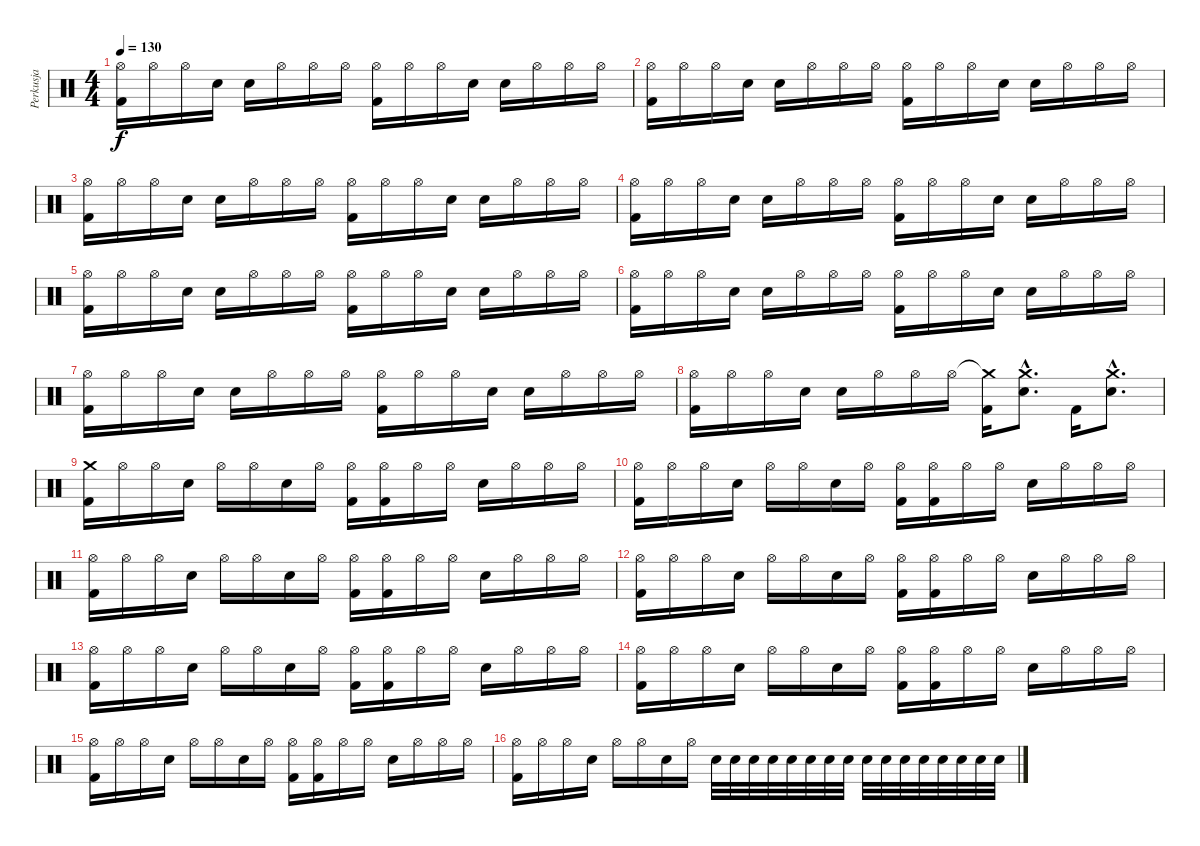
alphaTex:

\track ("Perkusja" "Perkusja") {instrument percussion}
\staff {score}
\articulation defaults
\ts (4 4)
\tempo 130
\clef neutral
\ks c
("Hi-Hat (open)" "Kick (hit) 2").16{dy f} "Hi-Hat (open)".16 "Hi-Hat (open)".16 "Electric Snare (hit)".16 "Electric Snare (hit)".16 "Hi-Hat (open)".16 "Hi-Hat (open)".16 "Hi-Hat (open)".16 ("Hi-Hat (open)" "Kick (hit) 2").16 "Hi-Hat (open)".16 "Hi-Hat (open)".16 "Electric Snare (hit)".16 "Electric Snare (hit)".16 "Hi-Hat (open)".16 "Hi-Hat (open)".16 "Hi-Hat (open)".16 |
("Hi-Hat (open)" "Kick (hit) 2").16 "Hi-Hat (open)".16 "Hi-Hat (open)".16 "Electric Snare (hit)".16 "Electric Snare (hit)".16 "Hi-Hat (open)".16 "Hi-Hat (open)".16 "Hi-Hat (open)".16 ("Hi-Hat (open)" "Kick (hit) 2").16 "Hi-Hat (open)".16 "Hi-Hat (open)".16 "Electric Snare (hit)".16 "Electric Snare (hit)".16 "Hi-Hat (open)".16 "Hi-Hat (open)".16 "Hi-Hat (open)".16 |
("Hi-Hat (open)" "Kick (hit) 2").16 "Hi-Hat (open)".16 "Hi-Hat (open)".16 "Electric Snare (hit)".16 "Electric Snare (hit)".16 "Hi-Hat (open)".16 "Hi-Hat (open)".16 "Hi-Hat (open)".16 ("Hi-Hat (open)" "Kick (hit) 2").16 "Hi-Hat (open)".16 "Hi-Hat (open)".16 "Electric Snare (hit)".16 "Electric Snare (hit)".16 "Hi-Hat (open)".16 "Hi-Hat (open)".16 "Hi-Hat (open)".16 |
("Hi-Hat (open)" "Kick (hit) 2").16 "Hi-Hat (open)".16 "Hi-Hat (open)".16 "Electric Snare (hit)".16 "Electric Snare (hit)".16 "Hi-Hat (open)".16 "Hi-Hat (open)".16 "Hi-Hat (open)".16 ("Hi-Hat (open)" "Kick (hit) 2").16 "Hi-Hat (open)".16 "Hi-Hat (open)".16 "Electric Snare (hit)".16 "Electric Snare (hit)".16 "Hi-Hat (open)".16 "Hi-Hat (open)".16 "Hi-Hat (open)".16 |
("Hi-Hat (open)" "Kick (hit) 2").16 "Hi-Hat (open)".16 "Hi-Hat (open)".16 "Electric Snare (hit)".16 "Electric Snare (hit)".16 "Hi-Hat (open)".16 "Hi-Hat (open)".16 "Hi-Hat (open)".16 ("Hi-Hat (open)" "Kick (hit) 2").16 "Hi-Hat (open)".16 "Hi-Hat (open)".16 "Electric Snare (hit)".16 "Electric Snare (hit)".16 "Hi-Hat (open)".16 "Hi-Hat (open)".16 "Hi-Hat (open)".16 |
("Hi-Hat (open)" "Kick (hit) 2").16 "Hi-Hat (open)".16 "Hi-Hat (open)".16 "Electric Snare (hit)".16 "Electric Snare (hit)".16 "Hi-Hat (open)".16 "Hi-Hat (open)".16 "Hi-Hat (open)".16 ("Hi-Hat (open)" "Kick (hit) 2").16 "Hi-Hat (open)".16 "Hi-Hat (open)".16 "Electric Snare (hit)".16 "Electric Snare (hit)".16 "Hi-Hat (open)".16 "Hi-Hat (open)".16 "Hi-Hat (open)".16 |
("Hi-Hat (open)" "Kick (hit) 2").16 "Hi-Hat (open)".16 "Hi-Hat (open)".16 "Electric Snare (hit)".16 "Electric Snare (hit)".16 "Hi-Hat (open)".16 "Hi-Hat (open)".16 "Hi-Hat (open)".16 ("Hi-Hat (open)" "Kick (hit) 2").16 "Hi-Hat (open)".16 "Hi-Hat (open)".16 "Electric Snare (hit)".16 "Electric Snare (hit)".16 "Hi-Hat (open)".16 "Hi-Hat (open)".16 "Hi-Hat (open)".16 |
("Hi-Hat (open)" "Kick (hit) 2").16 "Hi-Hat (open)".16 "Hi-Hat (open)".16 "Electric Snare (hit)".16 "Electric Snare (hit)".16 "Hi-Hat (open)".16 "Hi-Hat (open)".16 "Hi-Hat (open)".16 ("Crash medium (hit)"{t} "Kick (hit) 2").16 ("Crash medium (hit)"{hac} "Electric Snare (hit)"{hac}).8{d} "Kick (hit) 2".16 ("Crash medium (hit)"{hac} "Electric Snare (hit)"{hac}).8{d} |
("Crash medium (hit)" "Kick (hit) 2").16 "Hi-Hat (open)".16 "Hi-Hat (open)".16 "Electric Snare (hit)".16 "Hi-Hat (open)".16 "Hi-Hat (open)".16 "Electric Snare (hit)".16 "Hi-Hat (open)".16 ("Hi-Hat (open)" "Kick (hit) 2").16 ("Hi-Hat (open)" "Kick (hit) 2").16 "Hi-Hat (open)".16 "Hi-Hat (open)".16 "Electric Snare (hit)".16 "Hi-Hat (open)".16 "Hi-Hat (open)".16 "Hi-Hat (open)".16 |
("Hi-Hat (open)" "Kick (hit) 2").16 "Hi-Hat (open)".16 "Hi-Hat (open)".16 "Electric Snare (hit)".16 "Hi-Hat (open)".16 "Hi-Hat (open)".16 "Electric Snare (hit)".16 "Hi-Hat (open)".16 ("Hi-Hat (open)" "Kick (hit) 2").16 ("Hi-Hat (open)" "Kick (hit) 2").16 "Hi-Hat (open)".16 "Hi-Hat (open)".16 "Electric Snare (hit)".16 "Hi-Hat (open)".16 "Hi-Hat (open)".16 "Hi-Hat (open)".16 |
("Hi-Hat (open)" "Kick (hit) 2").16 "Hi-Hat (open)".16 "Hi-Hat (open)".16 "Electric Snare (hit)".16 "Hi-Hat (open)".16 "Hi-Hat (open)".16 "Electric Snare (hit)".16 "Hi-Hat (open)".16 ("Hi-Hat (open)" "Kick (hit) 2").16 ("Hi-Hat (open)" "Kick (hit) 2").16 "Hi-Hat (open)".16 "Hi-Hat (open)".16 "Electric Snare (hit)".16 "Hi-Hat (open)".16 "Hi-Hat (open)".16 "Hi-Hat (open)".16 |
("Hi-Hat (open)" "Kick (hit) 2").16 "Hi-Hat (open)".16 "Hi-Hat (open)".16 "Electric Snare (hit)".16 "Hi-Hat (open)".16 "Hi-Hat (open)".16 "Electric Snare (hit)".16 "Hi-Hat (open)".16 ("Hi-Hat (open)" "Kick (hit) 2").16 ("Hi-Hat (open)" "Kick (hit) 2").16 "Hi-Hat (open)".16 "Hi-Hat (open)".16 "Electric Snare (hit)".16 "Hi-Hat (open)".16 "Hi-Hat (open)".16 "Hi-Hat (open)".16 |
("Hi-Hat (open)" "Kick (hit) 2").16 "Hi-Hat (open)".16 "Hi-Hat (open)".16 "Electric Snare (hit)".16 "Hi-Hat (open)".16 "Hi-Hat (open)".16 "Electric Snare (hit)".16 "Hi-Hat (open)".16 ("Hi-Hat (open)" "Kick (hit) 2").16 ("Hi-Hat (open)" "Kick (hit) 2").16 "Hi-Hat (open)".16 "Hi-Hat (open)".16 "Electric Snare (hit)".16 "Hi-Hat (open)".16 "Hi-Hat (open)".16 "Hi-Hat (open)".16 |
("Hi-Hat (open)" "Kick (hit) 2").16 "Hi-Hat (open)".16 "Hi-Hat (open)".16 "Electric Snare (hit)".16 "Hi-Hat (open)".16 "Hi-Hat (open)".16 "Electric Snare (hit)".16 "Hi-Hat (open)".16 ("Hi-Hat (open)" "Kick (hit) 2").16 ("Hi-Hat (open)" "Kick (hit) 2").16 "Hi-Hat (open)".16 "Hi-Hat (open)".16 "Electric Snare (hit)".16 "Hi-Hat (open)".16 "Hi-Hat (open)".16 "Hi-Hat (open)".16 |
("Hi-Hat (open)" "Kick (hit) 2").16 "Hi-Hat (open)".16 "Hi-Hat (open)".16 "Electric Snare (hit)".16 "Hi-Hat (open)".16 "Hi-Hat (open)".16 "Electric Snare (hit)".16 "Hi-Hat (open)".16 ("Hi-Hat (open)" "Kick (hit) 2").16 ("Hi-Hat (open)" "Kick (hit) 2").16 "Hi-Hat (open)".16 "Hi-Hat (open)".16 "Electric Snare (hit)".16 "Hi-Hat (open)".16 "Hi-Hat (open)".16 "Hi-Hat (open)".16 |
("Hi-Hat (open)" "Kick (hit) 2").16 "Hi-Hat (open)".16 "Hi-Hat (open)".16 "Electric Snare (hit)".16 "Hi-Hat (open)".16 "Hi-Hat (open)".16 "Electric Snare (hit)".16 "Hi-Hat (open)".16 "Electric Snare (hit)".32 "Electric Snare (hit)".32 "Electric Snare (hit)".32 "Electric Snare (hit)".32 "Electric Snare (hit)".32 "Electric Snare (hit)".32 "Electric Snare (hit)".32 "Electric Snare (hit)".32 "Electric Snare (hit)".32 "Electric Snare (hit)".32 "Electric Snare (hit)".32 "Electric Snare (hit)".32 "Electric Snare (hit)".32 "Electric Snare (hit)".32 "Electric Snare (hit)".32 "Electric Snare (hit)".32
